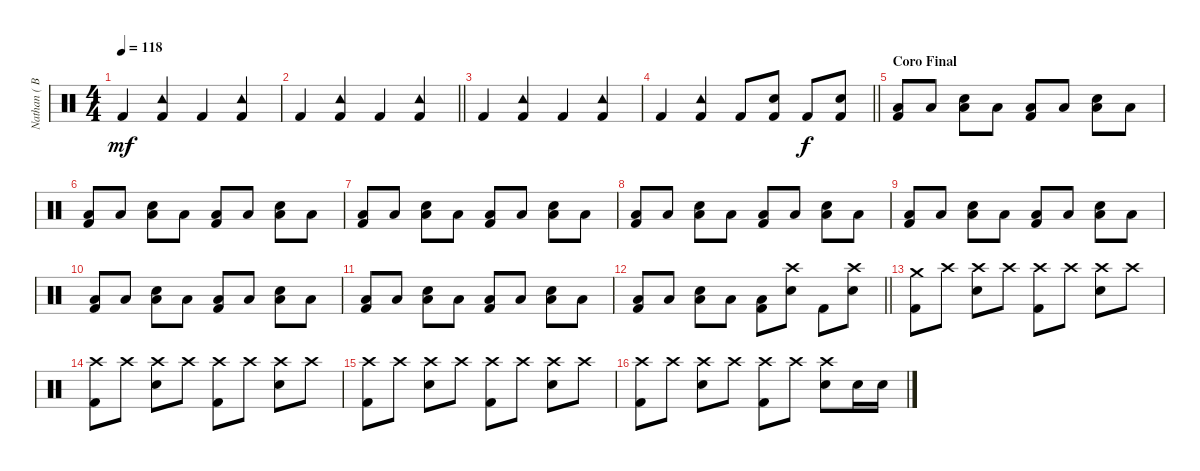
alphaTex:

\track ("Nathan ( Bateria )" "Nathan ( B") {instrument percussion}
\staff {score}
\articulation defaults
\ts (4 4)
\tempo 118
\clef neutral
\ks c "Kick (hit) 2".4{dy mf}
("Tambourine (hit)" "Kick (hit) 2").4 "Kick (hit) 2".4 ("Tambourine (hit)" "Kick (hit) 2").4 |
\barLineRight lightlight "Kick (hit) 2".4
("Tambourine (hit)" "Kick (hit) 2").4 "Kick (hit) 2".4 ("Tambourine (hit)" "Kick (hit) 2").4 |
"Kick (hit) 2".4 ("Tambourine (hit)" "Kick (hit) 2").4 "Kick (hit) 2".4 ("Tambourine (hit)" "Kick (hit) 2").4 |
\barLineRight lightlight "Kick (hit) 2".4
("Tambourine (hit)" "Kick (hit) 2").4 "Kick (hit) 2".8 ("Electric Snare (hit)" "Kick (hit) 2").8 "Kick (hit) 2".8{dy f} ("Electric Snare (hit)" "Kick (hit) 2").8 |
\section ("" "Coro Final")
("Low Floor Tom (hit)" "Kick (hit) 2").8 "Low Floor Tom (hit)".8 ("Low Floor Tom (hit)" "Electric Snare (hit)").8 "Low Floor Tom (hit)".8 ("Low Floor Tom (hit)" "Kick (hit) 2").8 "Low Floor Tom (hit)".8 ("Low Floor Tom (hit)" "Electric Snare (hit)").8 "Low Floor Tom (hit)".8 |
("Low Floor Tom (hit)" "Kick (hit) 2").8 "Low Floor Tom (hit)".8 ("Low Floor Tom (hit)" "Electric Snare (hit)").8 "Low Floor Tom (hit)".8 ("Low Floor Tom (hit)" "Kick (hit) 2").8 "Low Floor Tom (hit)".8 ("Low Floor Tom (hit)" "Electric Snare (hit)").8 "Low Floor Tom (hit)".8 |
("Low Floor Tom (hit)" "Kick (hit) 2").8 "Low Floor Tom (hit)".8 ("Low Floor Tom (hit)" "Electric Snare (hit)").8 "Low Floor Tom (hit)".8 ("Low Floor Tom (hit)" "Kick (hit) 2").8 "Low Floor Tom (hit)".8 ("Low Floor Tom (hit)" "Electric Snare (hit)").8 "Low Floor Tom (hit)".8 |
("Low Floor Tom (hit)" "Kick (hit) 2").8 "Low Floor Tom (hit)".8 ("Low Floor Tom (hit)" "Electric Snare (hit)").8 "Low Floor Tom (hit)".8 ("Low Floor Tom (hit)" "Kick (hit) 2").8 "Low Floor Tom (hit)".8 ("Low Floor Tom (hit)" "Electric Snare (hit)").8 "Low Floor Tom (hit)".8 |
("Low Floor Tom (hit)" "Kick (hit) 2").8 "Low Floor Tom (hit)".8 ("Low Floor Tom (hit)" "Electric Snare (hit)").8 "Low Floor Tom (hit)".8 ("Low Floor Tom (hit)" "Kick (hit) 2").8 "Low Floor Tom (hit)".8 ("Low Floor Tom (hit)" "Electric Snare (hit)").8 "Low Floor Tom (hit)".8 |
("Low Floor Tom (hit)" "Kick (hit) 2").8 "Low Floor Tom (hit)".8 ("Low Floor Tom (hit)" "Electric Snare (hit)").8 "Low Floor Tom (hit)".8 ("Low Floor Tom (hit)" "Kick (hit) 2").8 "Low Floor Tom (hit)".8 ("Low Floor Tom (hit)" "Electric Snare (hit)").8 "Low Floor Tom (hit)".8 |
("Low Floor Tom (hit)" "Kick (hit) 2").8 "Low Floor Tom (hit)".8 ("Low Floor Tom (hit)" "Electric Snare (hit)").8 "Low Floor Tom (hit)".8 ("Low Floor Tom (hit)" "Kick (hit) 2").8 "Low Floor Tom (hit)".8 ("Low Floor Tom (hit)" "Electric Snare (hit)").8 "Low Floor Tom (hit)".8 |
\barLineRight lightlight
("Low Floor Tom (hit)" "Kick (hit) 2").8 "Low Floor Tom (hit)".8 ("Low Floor Tom (hit)" "Electric Snare (hit)").8 "Low Floor Tom (hit)".8 ("Low Floor Tom (hit)" "Kick (hit) 2").8 ("Crash high (hit)" "Electric Snare (hit)").8 "Kick (hit) 2".8 ("Crash high (hit)" "Electric Snare (hit)").8 |
("Crash medium (hit)" "Kick (hit) 2").8 "Crash high (hit)".8 ("Crash high (hit)" "Electric Snare (hit)").8 "Crash high (hit)".8 ("Crash high (hit)" "Kick (hit) 2").8 "Crash high (hit)".8 ("Crash high (hit)" "Electric Snare (hit)").8 "Crash high (hit)".8 |
("Crash high (hit)" "Kick (hit) 2").8 "Crash high (hit)".8 ("Crash high (hit)" "Electric Snare (hit)").8 "Crash high (hit)".8 ("Crash high (hit)" "Kick (hit) 2").8 "Crash high (hit)".8 ("Crash high (hit)" "Electric Snare (hit)").8 "Crash high (hit)".8 |
("Crash high (hit)" "Kick (hit) 2").8 "Crash high (hit)".8 ("Crash high (hit)" "Electric Snare (hit)").8 "Crash high (hit)".8 ("Crash high (hit)" "Kick (hit) 2").8 "Crash high (hit)".8 ("Crash high (hit)" "Electric Snare (hit)").8 "Crash high (hit)".8 |
("Crash high (hit)" "Kick (hit) 2").8 "Crash high (hit)".8 ("Crash high (hit)" "Electric Snare (hit)").8 "Crash high (hit)".8 ("Crash high (hit)" "Kick (hit) 2").8 "Crash high (hit)".8 ("Crash high (hit)" "Electric Snare (hit)").8 "Electric Snare (hit)".16 "Electric Snare (hit)".16
